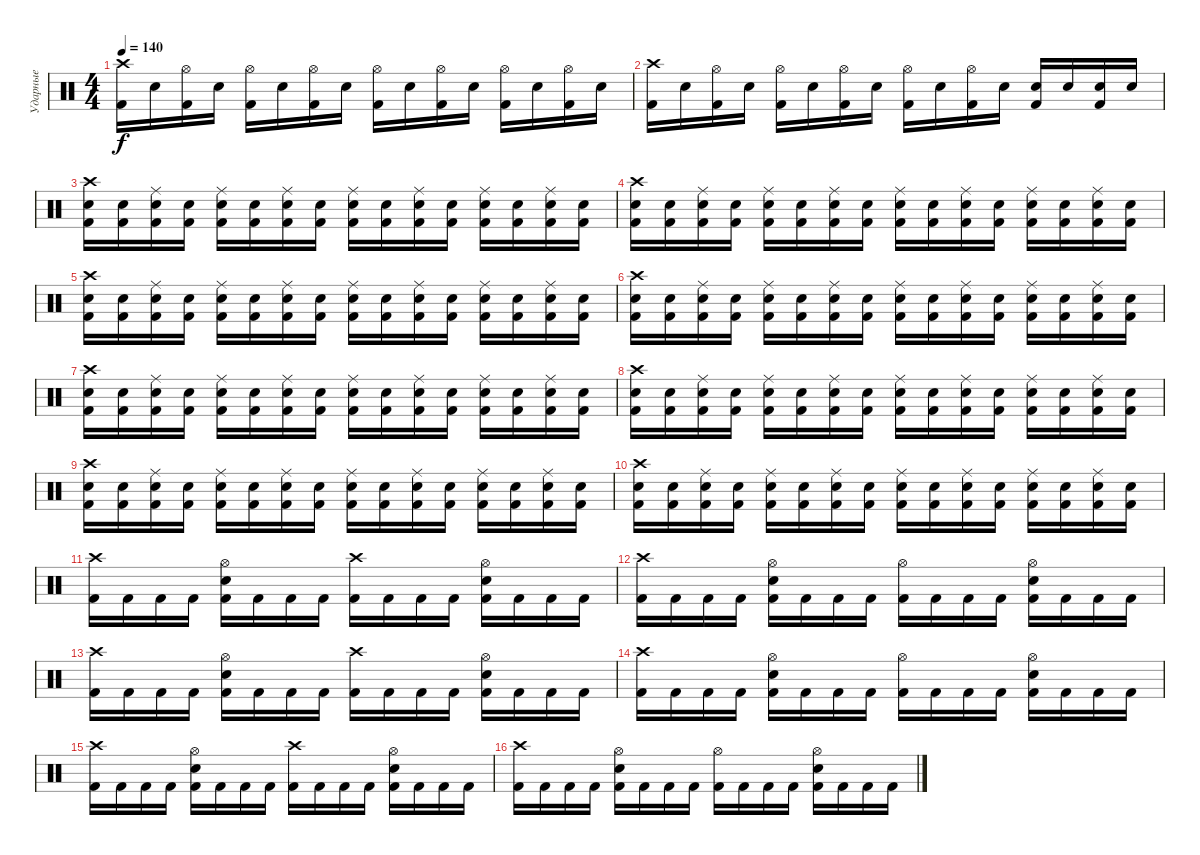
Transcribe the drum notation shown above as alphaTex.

\track ("Ударные" "Ударные") {mute instrument percussion}
\staff {score}
\articulation defaults
\ts (4 4)
\tempo 140
\clef neutral
\ks c
("Crash high (hit)" "Kick (hit) 2").16{dy f} "Electric Snare (hit)".16 ("Hi-Hat (open)" "Kick (hit) 2").16 "Electric Snare (hit)".16 ("Hi-Hat (open)" "Kick (hit) 2").16 "Electric Snare (hit)".16 ("Hi-Hat (open)" "Kick (hit) 2").16 "Electric Snare (hit)".16 ("Hi-Hat (open)" "Kick (hit) 2").16 "Electric Snare (hit)".16 ("Hi-Hat (open)" "Kick (hit) 2").16 "Electric Snare (hit)".16 ("Hi-Hat (open)" "Kick (hit) 2").16 "Electric Snare (hit)".16 ("Hi-Hat (open)" "Kick (hit) 2").16 "Electric Snare (hit)".16 |
("Crash high (hit)" "Kick (hit) 2").16 "Electric Snare (hit)".16 ("Hi-Hat (open)" "Kick (hit) 2").16 "Electric Snare (hit)".16 ("Hi-Hat (open)" "Kick (hit) 2").16 "Electric Snare (hit)".16 ("Hi-Hat (open)" "Kick (hit) 2").16 "Electric Snare (hit)".16 ("Hi-Hat (open)" "Kick (hit) 2").16 "Electric Snare (hit)".16 ("Hi-Hat (open)" "Kick (hit) 2").16 "Electric Snare (hit)".16 ("Electric Snare (hit)" "Kick (hit) 2").16 "Electric Snare (hit)".16 ("Electric Snare (hit)" "Kick (hit) 2").16 "Electric Snare (hit)".16 |
("Crash high (hit)" "Electric Snare (hit)" "Kick (hit) 2").16 ("Electric Snare (hit)" "Kick (hit) 2").16 ("Ride (middle)" "Electric Snare (hit)" "Kick (hit) 2").16 ("Electric Snare (hit)" "Kick (hit) 2").16 ("Ride (middle)" "Electric Snare (hit)" "Kick (hit) 2").16 ("Electric Snare (hit)" "Kick (hit) 2").16 ("Ride (middle)" "Electric Snare (hit)" "Kick (hit) 2").16 ("Electric Snare (hit)" "Kick (hit) 2").16 ("Ride (middle)" "Electric Snare (hit)" "Kick (hit) 2").16 ("Electric Snare (hit)" "Kick (hit) 2").16 ("Ride (middle)" "Electric Snare (hit)" "Kick (hit) 2").16 ("Electric Snare (hit)" "Kick (hit) 2").16 ("Ride (middle)" "Electric Snare (hit)" "Kick (hit) 2").16 ("Electric Snare (hit)" "Kick (hit) 2").16 ("Ride (middle)" "Electric Snare (hit)" "Kick (hit) 2").16 ("Electric Snare (hit)" "Kick (hit) 2").16 |
("Crash high (hit)" "Electric Snare (hit)" "Kick (hit) 2").16 ("Electric Snare (hit)" "Kick (hit) 2").16 ("Ride (middle)" "Electric Snare (hit)" "Kick (hit) 2").16 ("Electric Snare (hit)" "Kick (hit) 2").16 ("Ride (middle)" "Electric Snare (hit)" "Kick (hit) 2").16 ("Electric Snare (hit)" "Kick (hit) 2").16 ("Ride (middle)" "Electric Snare (hit)" "Kick (hit) 2").16 ("Electric Snare (hit)" "Kick (hit) 2").16 ("Ride (middle)" "Electric Snare (hit)" "Kick (hit) 2").16 ("Electric Snare (hit)" "Kick (hit) 2").16 ("Ride (middle)" "Electric Snare (hit)" "Kick (hit) 2").16 ("Electric Snare (hit)" "Kick (hit) 2").16 ("Ride (middle)" "Electric Snare (hit)" "Kick (hit) 2").16 ("Electric Snare (hit)" "Kick (hit) 2").16 ("Ride (middle)" "Electric Snare (hit)" "Kick (hit) 2").16 ("Electric Snare (hit)" "Kick (hit) 2").16 |
("Crash high (hit)" "Electric Snare (hit)" "Kick (hit) 2").16 ("Electric Snare (hit)" "Kick (hit) 2").16 ("Ride (middle)" "Electric Snare (hit)" "Kick (hit) 2").16 ("Electric Snare (hit)" "Kick (hit) 2").16 ("Ride (middle)" "Electric Snare (hit)" "Kick (hit) 2").16 ("Electric Snare (hit)" "Kick (hit) 2").16 ("Ride (middle)" "Electric Snare (hit)" "Kick (hit) 2").16 ("Electric Snare (hit)" "Kick (hit) 2").16 ("Ride (middle)" "Electric Snare (hit)" "Kick (hit) 2").16 ("Electric Snare (hit)" "Kick (hit) 2").16 ("Ride (middle)" "Electric Snare (hit)" "Kick (hit) 2").16 ("Electric Snare (hit)" "Kick (hit) 2").16 ("Ride (middle)" "Electric Snare (hit)" "Kick (hit) 2").16 ("Electric Snare (hit)" "Kick (hit) 2").16 ("Ride (middle)" "Electric Snare (hit)" "Kick (hit) 2").16 ("Electric Snare (hit)" "Kick (hit) 2").16 |
("Crash high (hit)" "Electric Snare (hit)" "Kick (hit) 2").16 ("Electric Snare (hit)" "Kick (hit) 2").16 ("Ride (middle)" "Electric Snare (hit)" "Kick (hit) 2").16 ("Electric Snare (hit)" "Kick (hit) 2").16 ("Ride (middle)" "Electric Snare (hit)" "Kick (hit) 2").16 ("Electric Snare (hit)" "Kick (hit) 2").16 ("Ride (middle)" "Electric Snare (hit)" "Kick (hit) 2").16 ("Electric Snare (hit)" "Kick (hit) 2").16 ("Ride (middle)" "Electric Snare (hit)" "Kick (hit) 2").16 ("Electric Snare (hit)" "Kick (hit) 2").16 ("Ride (middle)" "Electric Snare (hit)" "Kick (hit) 2").16 ("Electric Snare (hit)" "Kick (hit) 2").16 ("Ride (middle)" "Electric Snare (hit)" "Kick (hit) 2").16 ("Electric Snare (hit)" "Kick (hit) 2").16 ("Ride (middle)" "Electric Snare (hit)" "Kick (hit) 2").16 ("Electric Snare (hit)" "Kick (hit) 2").16 |
("Crash high (hit)" "Electric Snare (hit)" "Kick (hit) 2").16 ("Electric Snare (hit)" "Kick (hit) 2").16 ("Ride (middle)" "Electric Snare (hit)" "Kick (hit) 2").16 ("Electric Snare (hit)" "Kick (hit) 2").16 ("Ride (middle)" "Electric Snare (hit)" "Kick (hit) 2").16 ("Electric Snare (hit)" "Kick (hit) 2").16 ("Ride (middle)" "Electric Snare (hit)" "Kick (hit) 2").16 ("Electric Snare (hit)" "Kick (hit) 2").16 ("Ride (middle)" "Electric Snare (hit)" "Kick (hit) 2").16 ("Electric Snare (hit)" "Kick (hit) 2").16 ("Ride (middle)" "Electric Snare (hit)" "Kick (hit) 2").16 ("Electric Snare (hit)" "Kick (hit) 2").16 ("Ride (middle)" "Electric Snare (hit)" "Kick (hit) 2").16 ("Electric Snare (hit)" "Kick (hit) 2").16 ("Ride (middle)" "Electric Snare (hit)" "Kick (hit) 2").16 ("Electric Snare (hit)" "Kick (hit) 2").16 |
("Crash high (hit)" "Electric Snare (hit)" "Kick (hit) 2").16 ("Electric Snare (hit)" "Kick (hit) 2").16 ("Ride (middle)" "Electric Snare (hit)" "Kick (hit) 2").16 ("Electric Snare (hit)" "Kick (hit) 2").16 ("Ride (middle)" "Electric Snare (hit)" "Kick (hit) 2").16 ("Electric Snare (hit)" "Kick (hit) 2").16 ("Ride (middle)" "Electric Snare (hit)" "Kick (hit) 2").16 ("Electric Snare (hit)" "Kick (hit) 2").16 ("Ride (middle)" "Electric Snare (hit)" "Kick (hit) 2").16 ("Electric Snare (hit)" "Kick (hit) 2").16 ("Ride (middle)" "Electric Snare (hit)" "Kick (hit) 2").16 ("Electric Snare (hit)" "Kick (hit) 2").16 ("Ride (middle)" "Electric Snare (hit)" "Kick (hit) 2").16 ("Electric Snare (hit)" "Kick (hit) 2").16 ("Ride (middle)" "Electric Snare (hit)" "Kick (hit) 2").16 ("Electric Snare (hit)" "Kick (hit) 2").16 |
("Crash high (hit)" "Electric Snare (hit)" "Kick (hit) 2").16 ("Electric Snare (hit)" "Kick (hit) 2").16 ("Ride (middle)" "Electric Snare (hit)" "Kick (hit) 2").16 ("Electric Snare (hit)" "Kick (hit) 2").16 ("Ride (middle)" "Electric Snare (hit)" "Kick (hit) 2").16 ("Electric Snare (hit)" "Kick (hit) 2").16 ("Ride (middle)" "Electric Snare (hit)" "Kick (hit) 2").16 ("Electric Snare (hit)" "Kick (hit) 2").16 ("Ride (middle)" "Electric Snare (hit)" "Kick (hit) 2").16 ("Electric Snare (hit)" "Kick (hit) 2").16 ("Ride (middle)" "Electric Snare (hit)" "Kick (hit) 2").16 ("Electric Snare (hit)" "Kick (hit) 2").16 ("Ride (middle)" "Electric Snare (hit)" "Kick (hit) 2").16 ("Electric Snare (hit)" "Kick (hit) 2").16 ("Ride (middle)" "Electric Snare (hit)" "Kick (hit) 2").16 ("Electric Snare (hit)" "Kick (hit) 2").16 |
("Crash high (hit)" "Electric Snare (hit)" "Kick (hit) 2").16 ("Electric Snare (hit)" "Kick (hit) 2").16 ("Ride (middle)" "Electric Snare (hit)" "Kick (hit) 2").16 ("Electric Snare (hit)" "Kick (hit) 2").16 ("Ride (middle)" "Electric Snare (hit)" "Kick (hit) 2").16 ("Electric Snare (hit)" "Kick (hit) 2").16 ("Ride (middle)" "Electric Snare (hit)" "Kick (hit) 2").16 ("Electric Snare (hit)" "Kick (hit) 2").16 ("Ride (middle)" "Electric Snare (hit)" "Kick (hit) 2").16 ("Electric Snare (hit)" "Kick (hit) 2").16 ("Ride (middle)" "Electric Snare (hit)" "Kick (hit) 2").16 ("Electric Snare (hit)" "Kick (hit) 2").16 ("Ride (middle)" "Electric Snare (hit)" "Kick (hit) 2").16 ("Electric Snare (hit)" "Kick (hit) 2").16 ("Ride (middle)" "Electric Snare (hit)" "Kick (hit) 2").16 ("Electric Snare (hit)" "Kick (hit) 2").16 |
("Crash high (hit)" "Kick (hit) 2").16 "Kick (hit) 2".16 "Kick (hit) 2".16 "Kick (hit) 2".16 ("Hi-Hat (open)" "Electric Snare (hit)" "Kick (hit) 2").16 "Kick (hit) 2".16 "Kick (hit) 2".16 "Kick (hit) 2".16 ("Crash high (hit)" "Kick (hit) 2").16 "Kick (hit) 2".16 "Kick (hit) 2".16 "Kick (hit) 2".16 ("Hi-Hat (open)" "Electric Snare (hit)" "Kick (hit) 2").16 "Kick (hit) 2".16 "Kick (hit) 2".16 "Kick (hit) 2".16 |
("Crash high (hit)" "Kick (hit) 2").16 "Kick (hit) 2".16 "Kick (hit) 2".16 "Kick (hit) 2".16 ("Hi-Hat (open)" "Electric Snare (hit)" "Kick (hit) 2").16 "Kick (hit) 2".16 "Kick (hit) 2".16 "Kick (hit) 2".16 ("Hi-Hat (open)" "Kick (hit) 2").16 "Kick (hit) 2".16 "Kick (hit) 2".16 "Kick (hit) 2".16 ("Hi-Hat (open)" "Electric Snare (hit)" "Kick (hit) 2").16 "Kick (hit) 2".16 "Kick (hit) 2".16 "Kick (hit) 2".16 |
("Crash high (hit)" "Kick (hit) 2").16 "Kick (hit) 2".16 "Kick (hit) 2".16 "Kick (hit) 2".16 ("Hi-Hat (open)" "Electric Snare (hit)" "Kick (hit) 2").16 "Kick (hit) 2".16 "Kick (hit) 2".16 "Kick (hit) 2".16 ("Crash high (hit)" "Kick (hit) 2").16 "Kick (hit) 2".16 "Kick (hit) 2".16 "Kick (hit) 2".16 ("Hi-Hat (open)" "Electric Snare (hit)" "Kick (hit) 2").16 "Kick (hit) 2".16 "Kick (hit) 2".16 "Kick (hit) 2".16 |
("Crash high (hit)" "Kick (hit) 2").16 "Kick (hit) 2".16 "Kick (hit) 2".16 "Kick (hit) 2".16 ("Hi-Hat (open)" "Electric Snare (hit)" "Kick (hit) 2").16 "Kick (hit) 2".16 "Kick (hit) 2".16 "Kick (hit) 2".16 ("Hi-Hat (open)" "Kick (hit) 2").16 "Kick (hit) 2".16 "Kick (hit) 2".16 "Kick (hit) 2".16 ("Hi-Hat (open)" "Electric Snare (hit)" "Kick (hit) 2").16 "Kick (hit) 2".16 "Kick (hit) 2".16 "Kick (hit) 2".16 |
("Crash high (hit)" "Kick (hit) 2").16 "Kick (hit) 2".16 "Kick (hit) 2".16 "Kick (hit) 2".16 ("Hi-Hat (open)" "Electric Snare (hit)" "Kick (hit) 2").16 "Kick (hit) 2".16 "Kick (hit) 2".16 "Kick (hit) 2".16 ("Crash high (hit)" "Kick (hit) 2").16 "Kick (hit) 2".16 "Kick (hit) 2".16 "Kick (hit) 2".16 ("Hi-Hat (open)" "Electric Snare (hit)" "Kick (hit) 2").16 "Kick (hit) 2".16 "Kick (hit) 2".16 "Kick (hit) 2".16 |
("Crash high (hit)" "Kick (hit) 2").16 "Kick (hit) 2".16 "Kick (hit) 2".16 "Kick (hit) 2".16 ("Hi-Hat (open)" "Electric Snare (hit)" "Kick (hit) 2").16 "Kick (hit) 2".16 "Kick (hit) 2".16 "Kick (hit) 2".16 ("Hi-Hat (open)" "Kick (hit) 2").16 "Kick (hit) 2".16 "Kick (hit) 2".16 "Kick (hit) 2".16 ("Hi-Hat (open)" "Electric Snare (hit)" "Kick (hit) 2").16 "Kick (hit) 2".16 "Kick (hit) 2".16 "Kick (hit) 2".16
